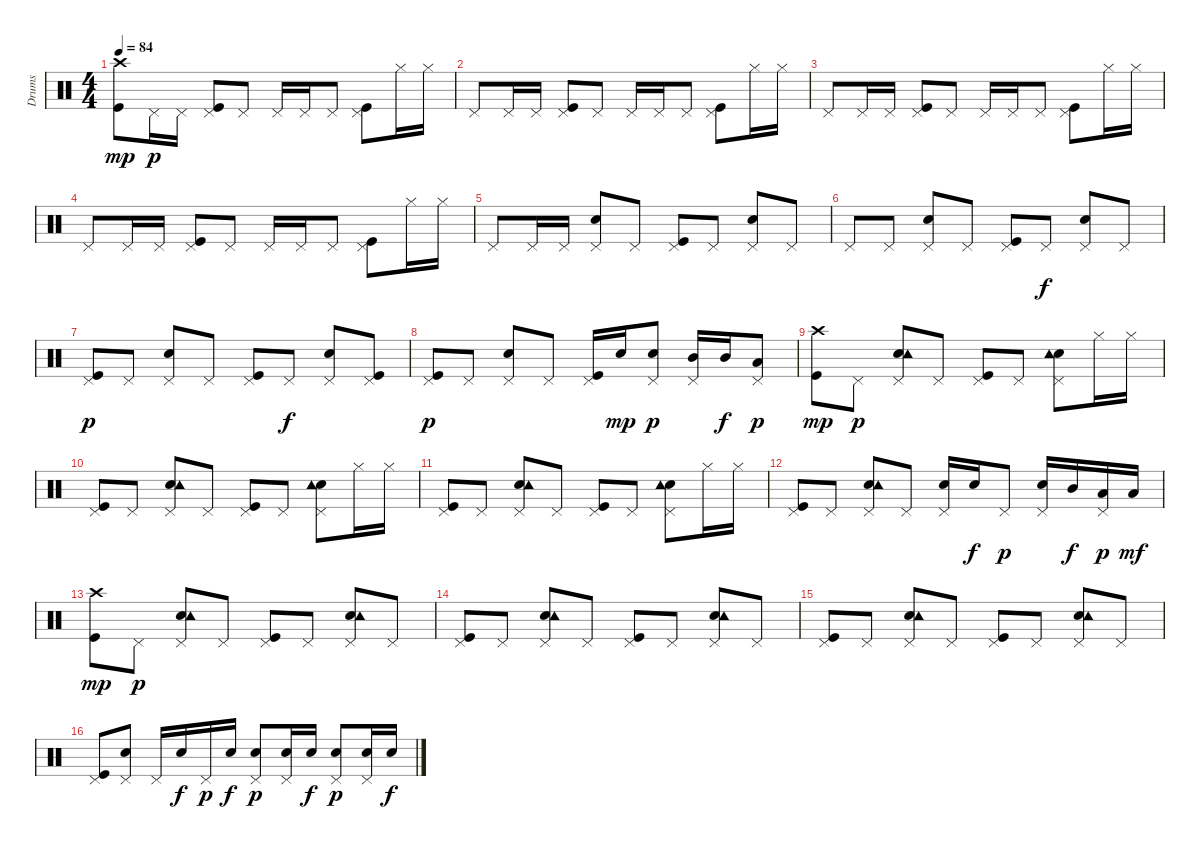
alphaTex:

\track ("Drums" "Drums") {instrument percussion}
\staff {score}
\articulation defaults
\ts (4 4)
\tempo 84
\clef neutral
\ks c
("Kick (hit)" "Crash high (hit)").8{dy mp} "Pedal Hi-Hat (hit)".16{dy p} "Pedal Hi-Hat (hit)".16 ("Kick (hit)" "Pedal Hi-Hat (hit)").8 "Pedal Hi-Hat (hit)".8 "Pedal Hi-Hat (hit)".16 "Pedal Hi-Hat (hit)".16 "Pedal Hi-Hat (hit)".8 ("Kick (hit)" "Pedal Hi-Hat (hit)").8 "Hi-Hat (closed)".16 "Hi-Hat (closed)".16 |
"Pedal Hi-Hat (hit)".8 "Pedal Hi-Hat (hit)".16 "Pedal Hi-Hat (hit)".16 ("Kick (hit)" "Pedal Hi-Hat (hit)").8 "Pedal Hi-Hat (hit)".8 "Pedal Hi-Hat (hit)".16 "Pedal Hi-Hat (hit)".16 "Pedal Hi-Hat (hit)".8 ("Kick (hit)" "Pedal Hi-Hat (hit)").8 "Hi-Hat (closed)".16 "Hi-Hat (closed)".16 |
"Pedal Hi-Hat (hit)".8 "Pedal Hi-Hat (hit)".16 "Pedal Hi-Hat (hit)".16 ("Kick (hit)" "Pedal Hi-Hat (hit)").8 "Pedal Hi-Hat (hit)".8 "Pedal Hi-Hat (hit)".16 "Pedal Hi-Hat (hit)".16 "Pedal Hi-Hat (hit)".8 ("Kick (hit)" "Pedal Hi-Hat (hit)").8 "Hi-Hat (closed)".16 "Hi-Hat (closed)".16 |
"Pedal Hi-Hat (hit)".8 "Pedal Hi-Hat (hit)".16 "Pedal Hi-Hat (hit)".16 ("Kick (hit)" "Pedal Hi-Hat (hit)").8 "Pedal Hi-Hat (hit)".8 "Pedal Hi-Hat (hit)".16 "Pedal Hi-Hat (hit)".16 "Pedal Hi-Hat (hit)".8 ("Kick (hit)" "Pedal Hi-Hat (hit)").8 "Hi-Hat (closed)".16 "Hi-Hat (closed)".16 |
"Pedal Hi-Hat (hit)".8 "Pedal Hi-Hat (hit)".16 "Pedal Hi-Hat (hit)".16 ("Electric Snare (hit)" "Pedal Hi-Hat (hit)").8 "Pedal Hi-Hat (hit)".8 ("Kick (hit)" "Pedal Hi-Hat (hit)").8 "Pedal Hi-Hat (hit)".8 ("Electric Snare (hit)" "Pedal Hi-Hat (hit)").8 "Pedal Hi-Hat (hit)".8 |
"Pedal Hi-Hat (hit)".8 "Pedal Hi-Hat (hit)".8 ("Electric Snare (hit)" "Pedal Hi-Hat (hit)").8 "Pedal Hi-Hat (hit)".8 ("Kick (hit)" "Pedal Hi-Hat (hit)").8 "Pedal Hi-Hat (hit)".8{dy f} ("Electric Snare (hit)" "Pedal Hi-Hat (hit)").8 "Pedal Hi-Hat (hit)".8 |
("Kick (hit)" "Pedal Hi-Hat (hit)").8{dy p} "Pedal Hi-Hat (hit)".8 ("Electric Snare (hit)" "Pedal Hi-Hat (hit)").8 "Pedal Hi-Hat (hit)".8 ("Kick (hit)" "Pedal Hi-Hat (hit)").8 "Pedal Hi-Hat (hit)".8{dy f} ("Electric Snare (hit)" "Pedal Hi-Hat (hit)").8 ("Kick (hit)" "Pedal Hi-Hat (hit)").8 |
("Kick (hit)" "Pedal Hi-Hat (hit)").8{dy p} "Pedal Hi-Hat (hit)".8 ("Electric Snare (hit)" "Pedal Hi-Hat (hit)").8 "Pedal Hi-Hat (hit)".8 ("Kick (hit)" "Pedal Hi-Hat (hit)").16 "Electric Snare (hit)".16{dy mp} ("Electric Snare (hit)" "Pedal Hi-Hat (hit)").8{dy p} ("Mid Tom (hit)" "Pedal Hi-Hat (hit)").16 "Mid Tom (hit)".16{dy f} ("Low Tom (hit)" "Pedal Hi-Hat (hit)").8{dy p} |
("Kick (hit)" "Crash high (hit)").8{dy mp} "Pedal Hi-Hat (hit)".8{dy p} ("Electric Snare (hit)" "Pedal Hi-Hat (hit)" "Tambourine (hit)").8 "Pedal Hi-Hat (hit)".8 ("Kick (hit)" "Pedal Hi-Hat (hit)").8 "Pedal Hi-Hat (hit)".8 ("Electric Snare (hit)" "Pedal Hi-Hat (hit)" "Tambourine (hit)").8 "Hi-Hat (closed)".16 "Hi-Hat (closed)".16 |
("Kick (hit)" "Pedal Hi-Hat (hit)").8 "Pedal Hi-Hat (hit)".8 ("Electric Snare (hit)" "Pedal Hi-Hat (hit)" "Tambourine (hit)").8 "Pedal Hi-Hat (hit)".8 ("Kick (hit)" "Pedal Hi-Hat (hit)").8 "Pedal Hi-Hat (hit)".8 ("Electric Snare (hit)" "Pedal Hi-Hat (hit)" "Tambourine (hit)").8 "Hi-Hat (closed)".16 "Hi-Hat (closed)".16 |
("Kick (hit)" "Pedal Hi-Hat (hit)").8 "Pedal Hi-Hat (hit)".8 ("Electric Snare (hit)" "Pedal Hi-Hat (hit)" "Tambourine (hit)").8 "Pedal Hi-Hat (hit)".8 ("Kick (hit)" "Pedal Hi-Hat (hit)").8 "Pedal Hi-Hat (hit)".8 ("Electric Snare (hit)" "Pedal Hi-Hat (hit)" "Tambourine (hit)").8 "Hi-Hat (closed)".16 "Hi-Hat (closed)".16 |
("Kick (hit)" "Pedal Hi-Hat (hit)").8 "Pedal Hi-Hat (hit)".8 ("Electric Snare (hit)" "Pedal Hi-Hat (hit)" "Tambourine (hit)").8 "Pedal Hi-Hat (hit)".8 ("Electric Snare (hit)" "Pedal Hi-Hat (hit)").16 "Electric Snare (hit)".16{dy f} "Pedal Hi-Hat (hit)".8{dy p} ("Electric Snare (hit)" "Pedal Hi-Hat (hit)").16 "Mid Tom (hit)".16{dy f} ("Low Tom (hit)" "Pedal Hi-Hat (hit)").16{dy p} "Low Tom (hit)".16{dy mf} |
("Kick (hit)" "Crash high (hit)").8{dy mp} "Pedal Hi-Hat (hit)".8{dy p} ("Electric Snare (hit)" "Pedal Hi-Hat (hit)" "Tambourine (hit)").8 "Pedal Hi-Hat (hit)".8 ("Kick (hit)" "Pedal Hi-Hat (hit)").8 "Pedal Hi-Hat (hit)".8 ("Electric Snare (hit)" "Pedal Hi-Hat (hit)" "Tambourine (hit)").8 "Pedal Hi-Hat (hit)".8 |
("Kick (hit)" "Pedal Hi-Hat (hit)").8 "Pedal Hi-Hat (hit)".8 ("Electric Snare (hit)" "Pedal Hi-Hat (hit)" "Tambourine (hit)").8 "Pedal Hi-Hat (hit)".8 ("Kick (hit)" "Pedal Hi-Hat (hit)").8 "Pedal Hi-Hat (hit)".8 ("Electric Snare (hit)" "Pedal Hi-Hat (hit)" "Tambourine (hit)").8 "Pedal Hi-Hat (hit)".8 |
("Kick (hit)" "Pedal Hi-Hat (hit)").8 "Pedal Hi-Hat (hit)".8 ("Electric Snare (hit)" "Pedal Hi-Hat (hit)" "Tambourine (hit)").8 "Pedal Hi-Hat (hit)".8 ("Kick (hit)" "Pedal Hi-Hat (hit)").8 "Pedal Hi-Hat (hit)".8 ("Electric Snare (hit)" "Pedal Hi-Hat (hit)" "Tambourine (hit)").8 "Pedal Hi-Hat (hit)".8 |
("Kick (hit)" "Pedal Hi-Hat (hit)").8 ("Electric Snare (hit)" "Pedal Hi-Hat (hit)").8 "Pedal Hi-Hat (hit)".16 "Electric Snare (hit)".16{dy f} "Pedal Hi-Hat (hit)".16{dy p} "Electric Snare (hit)".16{dy f} ("Electric Snare (hit)" "Pedal Hi-Hat (hit)").8{dy p} ("Electric Snare (hit)" "Pedal Hi-Hat (hit)").16 "Electric Snare (hit)".16{dy f} ("Electric Snare (hit)" "Pedal Hi-Hat (hit)").8{dy p} ("Electric Snare (hit)" "Pedal Hi-Hat (hit)").16 "Electric Snare (hit)".16{dy f}
